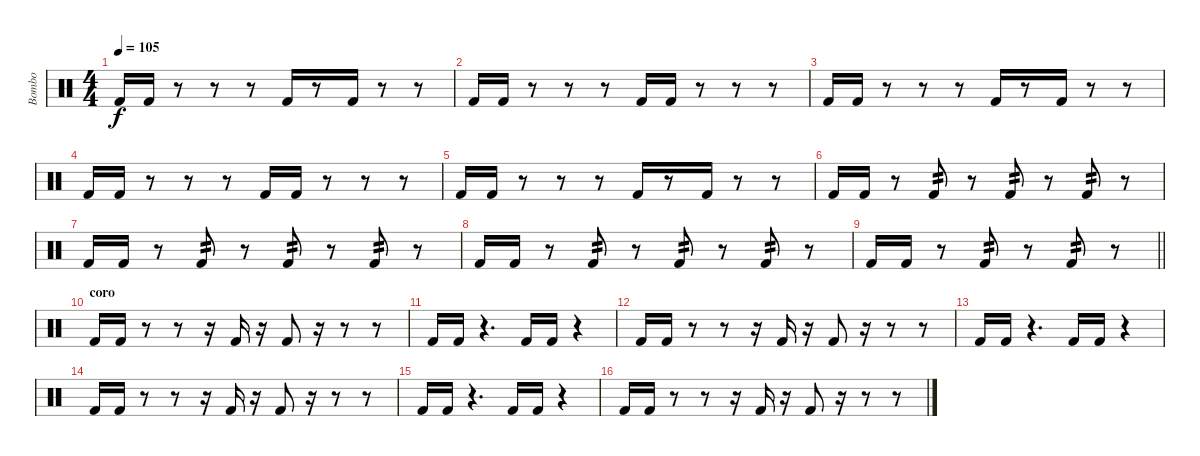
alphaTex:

\track ("Bombo" "Bombo") {instrument percussion}
\staff {score}
\articulation defaults
\ts (4 4)
\tempo 105
\clef neutral
\ks c "Kick (hit) 2".16{dy f} "Kick (hit) 2".16
r.8 r.8 r.8 "Kick (hit) 2".16 r.8 "Kick (hit) 2".16 r.8 r.8 |
"Kick (hit) 2".16 "Kick (hit) 2".16 r.8 r.8 r.8 "Kick (hit) 2".16 "Kick (hit) 2".16 r.8 r.8 r.8 |
"Kick (hit) 2".16 "Kick (hit) 2".16 r.8 r.8 r.8 "Kick (hit) 2".16 r.8 "Kick (hit) 2".16 r.8 r.8 |
"Kick (hit) 2".16 "Kick (hit) 2".16 r.8 r.8 r.8 "Kick (hit) 2".16 "Kick (hit) 2".16 r.8 r.8 r.8 |
"Kick (hit) 2".16 "Kick (hit) 2".16 r.8 r.8 r.8 "Kick (hit) 2".16 r.8 "Kick (hit) 2".16 r.8 r.8 |
"Kick (hit) 2".16 "Kick (hit) 2".16 r.8 "Kick (hit) 2".8{tp 2} r.8 "Kick (hit) 2".8{tp 2} r.8 "Kick (hit) 2".8{tp 2} r.8 |
"Kick (hit) 2".16 "Kick (hit) 2".16 r.8 "Kick (hit) 2".8{tp 2} r.8 "Kick (hit) 2".8{tp 2} r.8 "Kick (hit) 2".8{tp 2} r.8 |
"Kick (hit) 2".16 "Kick (hit) 2".16 r.8 "Kick (hit) 2".8{tp 2} r.8 "Kick (hit) 2".8{tp 2} r.8 "Kick (hit) 2".8{tp 2} r.8 |
\barLineRight lightlight "Kick (hit) 2".16 "Kick (hit) 2".16
r.8 "Kick (hit) 2".8{tp 2} r.8 "Kick (hit) 2".8{tp 2} r.8 |
\section ("" "coro")
"Kick (hit) 2".16 "Kick (hit) 2".16 r.8 r.8 r.16 "Kick (hit) 2".16 r.16 "Kick (hit) 2".8 r.16 r.8 r.8 |
"Kick (hit) 2".16 "Kick (hit) 2".16 r.4{d} "Kick (hit) 2".16 "Kick (hit) 2".16 r.4 |
"Kick (hit) 2".16 "Kick (hit) 2".16 r.8 r.8 r.16 "Kick (hit) 2".16 r.16 "Kick (hit) 2".8 r.16 r.8 r.8 |
"Kick (hit) 2".16 "Kick (hit) 2".16 r.4{d} "Kick (hit) 2".16 "Kick (hit) 2".16 r.4 |
"Kick (hit) 2".16 "Kick (hit) 2".16 r.8 r.8 r.16 "Kick (hit) 2".16 r.16 "Kick (hit) 2".8 r.16 r.8 r.8 |
"Kick (hit) 2".16 "Kick (hit) 2".16 r.4{d} "Kick (hit) 2".16 "Kick (hit) 2".16 r.4 |
"Kick (hit) 2".16 "Kick (hit) 2".16 r.8 r.8 r.16 "Kick (hit) 2".16 r.16 "Kick (hit) 2".8 r.16 r.8 r.8
